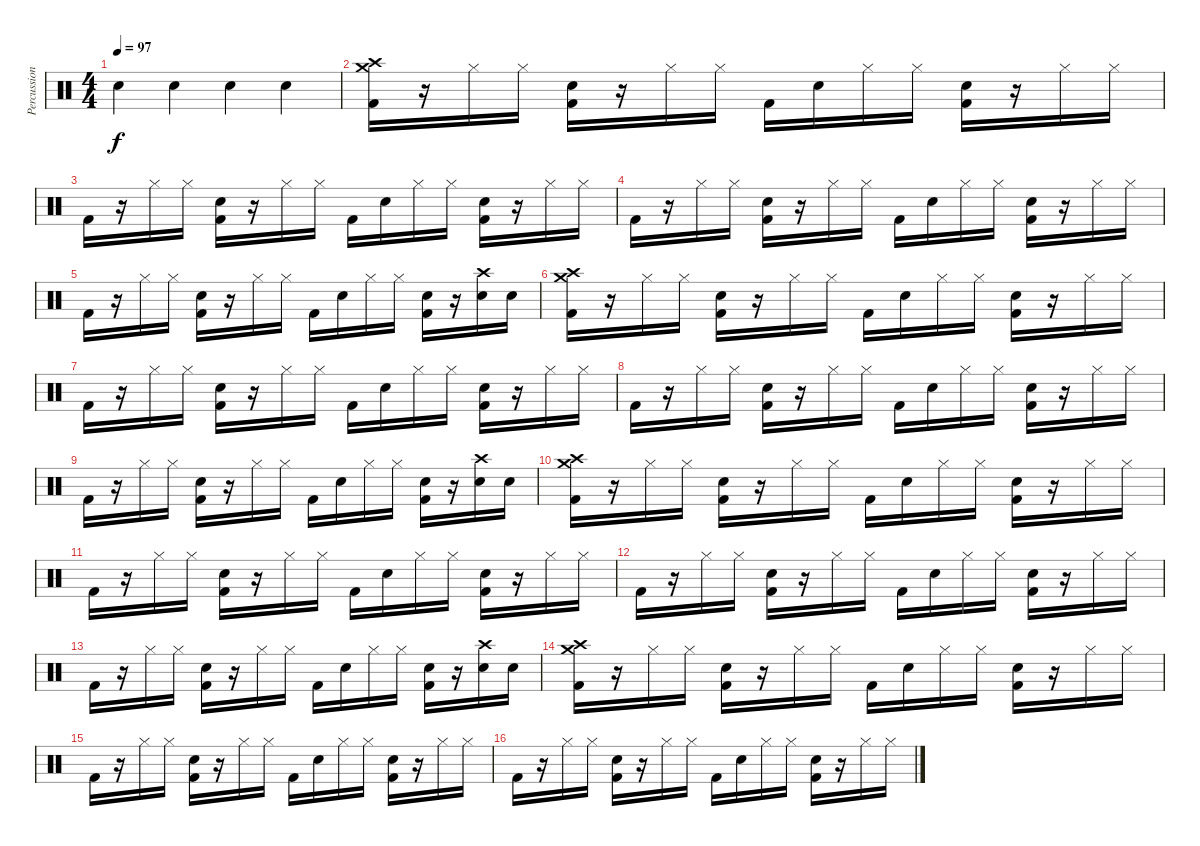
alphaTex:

\track ("Percussions" "Percussion") {instrument percussion}
\staff {score}
\articulation defaults
\ts (4 4)
\tempo 97
\clef neutral
\ks c "Hand Clap (hit)".4{dy f} "Hand Clap (hit)".4 "Hand Clap (hit)".4 "Hand Clap (hit)".4
|
("Crash medium (hit)" "Crash high (hit)" "Kick (hit) 2").16 r.16 "Hi-Hat (closed)".16 "Hi-Hat (closed)".16 ("Snare (hit) 2" "Kick (hit) 2").16 r.16 "Hi-Hat (closed)".16 "Hi-Hat (closed)".16 "Kick (hit) 2".16 "Snare (hit) 2".16 "Hi-Hat (closed)".16 "Hi-Hat (closed)".16 ("Snare (hit) 2" "Kick (hit) 2").16 r.16 "Hi-Hat (closed)".16 "Hi-Hat (closed)".16 |
"Kick (hit) 2".16 r.16 "Hi-Hat (closed)".16 "Hi-Hat (closed)".16 ("Snare (hit) 2" "Kick (hit) 2").16 r.16 "Hi-Hat (closed)".16 "Hi-Hat (closed)".16 "Kick (hit) 2".16 "Snare (hit) 2".16 "Hi-Hat (closed)".16 "Hi-Hat (closed)".16 ("Snare (hit) 2" "Kick (hit) 2").16 r.16 "Hi-Hat (closed)".16 "Hi-Hat (closed)".16 |
"Kick (hit) 2".16 r.16 "Hi-Hat (closed)".16 "Hi-Hat (closed)".16 ("Snare (hit) 2" "Kick (hit) 2").16 r.16 "Hi-Hat (closed)".16 "Hi-Hat (closed)".16 "Kick (hit) 2".16 "Snare (hit) 2".16 "Hi-Hat (closed)".16 "Hi-Hat (closed)".16 ("Snare (hit) 2" "Kick (hit) 2").16 r.16 "Hi-Hat (closed)".16 "Hi-Hat (closed)".16 |
"Kick (hit) 2".16 r.16 "Hi-Hat (closed)".16 "Hi-Hat (closed)".16 ("Snare (hit) 2" "Kick (hit) 2").16 r.16 "Hi-Hat (closed)".16 "Hi-Hat (closed)".16 "Kick (hit) 2".16 "Snare (hit) 2".16 "Hi-Hat (closed)".16 "Hi-Hat (closed)".16 ("Snare (hit) 2" "Kick (hit) 2").16 r.16 ("Crash high (hit)" "Snare (hit) 2").16 "Snare (hit) 2".16 |
("Crash medium (hit)" "Crash high (hit)" "Kick (hit) 2").16 r.16 "Hi-Hat (closed)".16 "Hi-Hat (closed)".16 ("Snare (hit) 2" "Kick (hit) 2").16 r.16 "Hi-Hat (closed)".16 "Hi-Hat (closed)".16 "Kick (hit) 2".16 "Snare (hit) 2".16 "Hi-Hat (closed)".16 "Hi-Hat (closed)".16 ("Snare (hit) 2" "Kick (hit) 2").16 r.16 "Hi-Hat (closed)".16 "Hi-Hat (closed)".16 |
"Kick (hit) 2".16 r.16 "Hi-Hat (closed)".16 "Hi-Hat (closed)".16 ("Snare (hit) 2" "Kick (hit) 2").16 r.16 "Hi-Hat (closed)".16 "Hi-Hat (closed)".16 "Kick (hit) 2".16 "Snare (hit) 2".16 "Hi-Hat (closed)".16 "Hi-Hat (closed)".16 ("Snare (hit) 2" "Kick (hit) 2").16 r.16 "Hi-Hat (closed)".16 "Hi-Hat (closed)".16 |
"Kick (hit) 2".16 r.16 "Hi-Hat (closed)".16 "Hi-Hat (closed)".16 ("Snare (hit) 2" "Kick (hit) 2").16 r.16 "Hi-Hat (closed)".16 "Hi-Hat (closed)".16 "Kick (hit) 2".16 "Snare (hit) 2".16 "Hi-Hat (closed)".16 "Hi-Hat (closed)".16 ("Snare (hit) 2" "Kick (hit) 2").16 r.16 "Hi-Hat (closed)".16 "Hi-Hat (closed)".16 |
"Kick (hit) 2".16 r.16 "Hi-Hat (closed)".16 "Hi-Hat (closed)".16 ("Snare (hit) 2" "Kick (hit) 2").16 r.16 "Hi-Hat (closed)".16 "Hi-Hat (closed)".16 "Kick (hit) 2".16 "Snare (hit) 2".16 "Hi-Hat (closed)".16 "Hi-Hat (closed)".16 ("Snare (hit) 2" "Kick (hit) 2").16 r.16 ("Crash high (hit)" "Snare (hit) 2").16 "Snare (hit) 2".16 |
("Crash medium (hit)" "Crash high (hit)" "Kick (hit) 2").16 r.16 "Hi-Hat (closed)".16 "Hi-Hat (closed)".16 ("Snare (hit) 2" "Kick (hit) 2").16 r.16 "Hi-Hat (closed)".16 "Hi-Hat (closed)".16 "Kick (hit) 2".16 "Snare (hit) 2".16 "Hi-Hat (closed)".16 "Hi-Hat (closed)".16 ("Snare (hit) 2" "Kick (hit) 2").16 r.16 "Hi-Hat (closed)".16 "Hi-Hat (closed)".16 |
"Kick (hit) 2".16 r.16 "Hi-Hat (closed)".16 "Hi-Hat (closed)".16 ("Snare (hit) 2" "Kick (hit) 2").16 r.16 "Hi-Hat (closed)".16 "Hi-Hat (closed)".16 "Kick (hit) 2".16 "Snare (hit) 2".16 "Hi-Hat (closed)".16 "Hi-Hat (closed)".16 ("Snare (hit) 2" "Kick (hit) 2").16 r.16 "Hi-Hat (closed)".16 "Hi-Hat (closed)".16 |
"Kick (hit) 2".16 r.16 "Hi-Hat (closed)".16 "Hi-Hat (closed)".16 ("Snare (hit) 2" "Kick (hit) 2").16 r.16 "Hi-Hat (closed)".16 "Hi-Hat (closed)".16 "Kick (hit) 2".16 "Snare (hit) 2".16 "Hi-Hat (closed)".16 "Hi-Hat (closed)".16 ("Snare (hit) 2" "Kick (hit) 2").16 r.16 "Hi-Hat (closed)".16 "Hi-Hat (closed)".16 |
"Kick (hit) 2".16 r.16 "Hi-Hat (closed)".16 "Hi-Hat (closed)".16 ("Snare (hit) 2" "Kick (hit) 2").16 r.16 "Hi-Hat (closed)".16 "Hi-Hat (closed)".16 "Kick (hit) 2".16 "Snare (hit) 2".16 "Hi-Hat (closed)".16 "Hi-Hat (closed)".16 ("Snare (hit) 2" "Kick (hit) 2").16 r.16 ("Crash high (hit)" "Snare (hit) 2").16 "Snare (hit) 2".16 |
("Crash medium (hit)" "Crash high (hit)" "Kick (hit) 2").16 r.16 "Hi-Hat (closed)".16 "Hi-Hat (closed)".16 ("Snare (hit) 2" "Kick (hit) 2").16 r.16 "Hi-Hat (closed)".16 "Hi-Hat (closed)".16 "Kick (hit) 2".16 "Snare (hit) 2".16 "Hi-Hat (closed)".16 "Hi-Hat (closed)".16 ("Snare (hit) 2" "Kick (hit) 2").16 r.16 "Hi-Hat (closed)".16 "Hi-Hat (closed)".16 |
"Kick (hit) 2".16 r.16 "Hi-Hat (closed)".16 "Hi-Hat (closed)".16 ("Snare (hit) 2" "Kick (hit) 2").16 r.16 "Hi-Hat (closed)".16 "Hi-Hat (closed)".16 "Kick (hit) 2".16 "Snare (hit) 2".16 "Hi-Hat (closed)".16 "Hi-Hat (closed)".16 ("Snare (hit) 2" "Kick (hit) 2").16 r.16 "Hi-Hat (closed)".16 "Hi-Hat (closed)".16 |
"Kick (hit) 2".16 r.16 "Hi-Hat (closed)".16 "Hi-Hat (closed)".16 ("Snare (hit) 2" "Kick (hit) 2").16 r.16 "Hi-Hat (closed)".16 "Hi-Hat (closed)".16 "Kick (hit) 2".16 "Snare (hit) 2".16 "Hi-Hat (closed)".16 "Hi-Hat (closed)".16 ("Snare (hit) 2" "Kick (hit) 2").16 r.16 "Hi-Hat (closed)".16 "Hi-Hat (closed)".16
